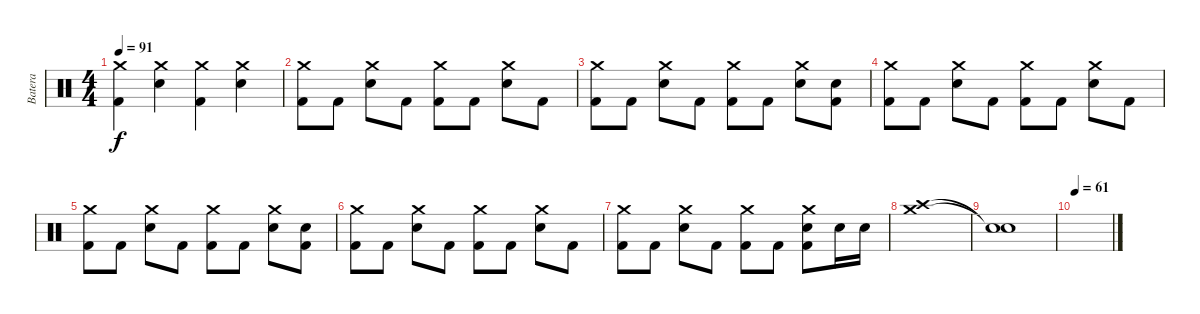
\track ("Batera" "Batera") {instrument percussion}
\staff {score}
\articulation defaults
\ts (4 4)
\tempo 91
\clef neutral
\ks c
("Crash medium (hit)" "Kick (hit) 2").4{dy f} ("Crash medium (hit)" "Electric Snare (hit)").4 ("Crash medium (hit)" "Kick (hit) 2").4 ("Crash medium (hit)" "Electric Snare (hit)").4 |
("Crash medium (hit)" "Kick (hit) 2").8 "Kick (hit) 2".8 ("Crash medium (hit)" "Electric Snare (hit)").8 "Kick (hit) 2".8 ("Crash medium (hit)" "Kick (hit) 2").8 "Kick (hit) 2".8 ("Crash medium (hit)" "Electric Snare (hit)").8 "Kick (hit) 2".8 |
("Crash medium (hit)" "Kick (hit) 2").8 "Kick (hit) 2".8 ("Crash medium (hit)" "Electric Snare (hit)").8 "Kick (hit) 2".8 ("Crash medium (hit)" "Kick (hit) 2").8 "Kick (hit) 2".8 ("Crash medium (hit)" "Electric Snare (hit)").8 ("Electric Snare (hit)" "Kick (hit) 2").8 |
("Crash medium (hit)" "Kick (hit) 2").8 "Kick (hit) 2".8 ("Crash medium (hit)" "Electric Snare (hit)").8 "Kick (hit) 2".8 ("Crash medium (hit)" "Kick (hit) 2").8 "Kick (hit) 2".8 ("Crash medium (hit)" "Electric Snare (hit)").8 "Kick (hit) 2".8 |
("Crash medium (hit)" "Kick (hit) 2").8 "Kick (hit) 2".8 ("Crash medium (hit)" "Electric Snare (hit)").8 "Kick (hit) 2".8 ("Crash medium (hit)" "Kick (hit) 2").8 "Kick (hit) 2".8 ("Crash medium (hit)" "Electric Snare (hit)").8 ("Electric Snare (hit)" "Kick (hit) 2").8 |
("Crash medium (hit)" "Kick (hit) 2").8 "Kick (hit) 2".8 ("Crash medium (hit)" "Electric Snare (hit)").8 "Kick (hit) 2".8 ("Crash medium (hit)" "Kick (hit) 2").8 "Kick (hit) 2".8 ("Crash medium (hit)" "Electric Snare (hit)").8 "Kick (hit) 2".8 |
("Crash medium (hit)" "Kick (hit) 2").8 "Kick (hit) 2".8 ("Crash medium (hit)" "Electric Snare (hit)").8 "Kick (hit) 2".8 ("Crash medium (hit)" "Kick (hit) 2").8 "Kick (hit) 2".8 ("Crash medium (hit)" "Electric Snare (hit)" "Kick (hit) 2").8 "Electric Snare (hit)".16 "Electric Snare (hit)".16 |
("Crash high (hit)" "Crash medium (hit)").1 |
("Snare (hit)"{t} "Snare (hit)"{t}).1 |
\tempo 61
